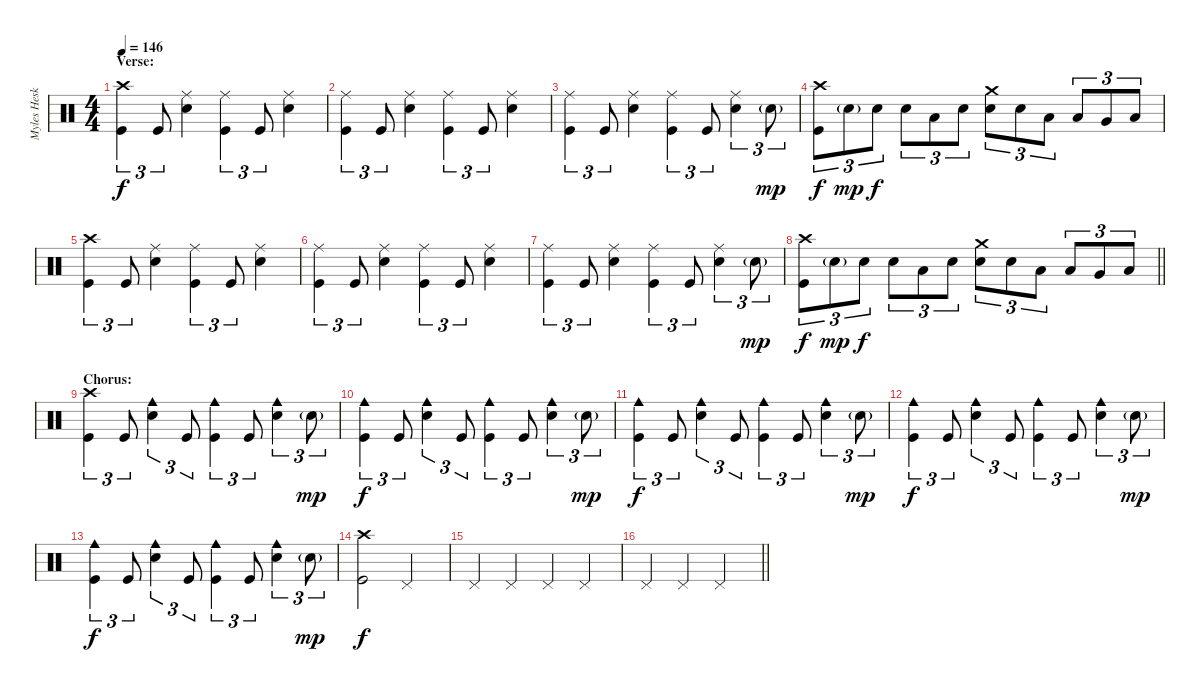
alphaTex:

\track ("Myles Heskett" "Myles Hesk") {instrument percussion}
\staff {score}
\articulation defaults
\ts (4 4)
\section ("" "Verse:")
\tempo 146
\clef neutral
\ks c
("Crash high (hit)" "Kick (hit)").4{tu (3 2) dy f} "Kick (hit)".8{tu (3 2)} ("Ride (middle)" "Electric Snare (hit)").4 ("Ride (middle)" "Kick (hit)").4{tu (3 2)} "Kick (hit)".8{tu (3 2)} ("Ride (middle)" "Electric Snare (hit)").4 |
("Ride (middle)" "Kick (hit)").4{tu (3 2)} "Kick (hit)".8{tu (3 2)} ("Ride (middle)" "Electric Snare (hit)").4 ("Ride (middle)" "Kick (hit)").4{tu (3 2)} "Kick (hit)".8{tu (3 2)} ("Ride (middle)" "Electric Snare (hit)").4 |
("Ride (middle)" "Kick (hit)").4{tu (3 2)} "Kick (hit)".8{tu (3 2)} ("Ride (middle)" "Electric Snare (hit)").4 ("Ride (middle)" "Kick (hit)").4{tu (3 2)} "Kick (hit)".8{tu (3 2)} ("Ride (middle)" "Electric Snare (hit)").4{tu (3 2)} "Electric Snare (hit)"{g}.8{tu (3 2) dy mp} |
("Crash high (hit)" "Kick (hit)").8{tu (3 2) dy f} "Electric Snare (hit)"{g}.8{tu (3 2) dy mp} "Electric Snare (hit)".8{tu (3 2) dy f} "Electric Snare (hit)".8{tu (3 2)} "Low Tom (hit)".8{tu (3 2)} "Electric Snare (hit)".8{tu (3 2)} ("Crash medium (hit)" "Electric Snare (hit)").8{tu (3 2)} "Electric Snare (hit)".8{tu (3 2)} "Low Tom (hit)".8{tu (3 2)} "Low Tom (hit)".8{tu (3 2)} "Very Low Tom (hit)".8{tu (3 2)} "Low Floor Tom (hit)".8{tu (3 2)} |
("Crash high (hit)" "Kick (hit)").4{tu (3 2)} "Kick (hit)".8{tu (3 2)} ("Ride (middle)" "Electric Snare (hit)").4 ("Ride (middle)" "Kick (hit)").4{tu (3 2)} "Kick (hit)".8{tu (3 2)} ("Ride (middle)" "Electric Snare (hit)").4 |
("Ride (middle)" "Kick (hit)").4{tu (3 2)} "Kick (hit)".8{tu (3 2)} ("Ride (middle)" "Electric Snare (hit)").4 ("Ride (middle)" "Kick (hit)").4{tu (3 2)} "Kick (hit)".8{tu (3 2)} ("Ride (middle)" "Electric Snare (hit)").4 |
("Ride (middle)" "Kick (hit)").4{tu (3 2)} "Kick (hit)".8{tu (3 2)} ("Ride (middle)" "Electric Snare (hit)").4 ("Ride (middle)" "Kick (hit)").4{tu (3 2)} "Kick (hit)".8{tu (3 2)} ("Ride (middle)" "Electric Snare (hit)").4{tu (3 2)} "Electric Snare (hit)"{g}.8{tu (3 2) dy mp} |
\barLineRight lightlight
("Crash high (hit)" "Kick (hit)").8{tu (3 2) dy f} "Electric Snare (hit)"{g}.8{tu (3 2) dy mp} "Electric Snare (hit)".8{tu (3 2) dy f} "Electric Snare (hit)".8{tu (3 2)} "Low Tom (hit)".8{tu (3 2)} "Electric Snare (hit)".8{tu (3 2)} ("Crash medium (hit)" "Electric Snare (hit)").8{tu (3 2)} "Electric Snare (hit)".8{tu (3 2)} "Low Tom (hit)".8{tu (3 2)} "Low Tom (hit)".8{tu (3 2)} "Very Low Tom (hit)".8{tu (3 2)} "Low Floor Tom (hit)".8{tu (3 2)} |
\section ("" "Chorus:")
("Crash high (hit)" "Kick (hit)").4{tu (3 2)} "Kick (hit)".8{tu (3 2)} ("Cowbell medium (hit)" "Electric Snare (hit)").4{tu (3 2)} "Kick (hit)".8{tu (3 2)} ("Cowbell medium (hit)" "Kick (hit)").4{tu (3 2)} "Kick (hit)".8{tu (3 2)} ("Cowbell medium (hit)" "Electric Snare (hit)").4{tu (3 2)} "Electric Snare (hit)"{g}.8{tu (3 2) dy mp} |
("Cowbell medium (hit)" "Kick (hit)").4{tu (3 2) dy f} "Kick (hit)".8{tu (3 2)} ("Cowbell medium (hit)" "Electric Snare (hit)").4{tu (3 2)} "Kick (hit)".8{tu (3 2)} ("Cowbell medium (hit)" "Kick (hit)").4{tu (3 2)} "Kick (hit)".8{tu (3 2)} ("Cowbell medium (hit)" "Electric Snare (hit)").4{tu (3 2)} "Electric Snare (hit)"{g}.8{tu (3 2) dy mp} |
("Cowbell medium (hit)" "Kick (hit)").4{tu (3 2) dy f} "Kick (hit)".8{tu (3 2)} ("Cowbell medium (hit)" "Electric Snare (hit)").4{tu (3 2)} "Kick (hit)".8{tu (3 2)} ("Cowbell medium (hit)" "Kick (hit)").4{tu (3 2)} "Kick (hit)".8{tu (3 2)} ("Cowbell medium (hit)" "Electric Snare (hit)").4{tu (3 2)} "Electric Snare (hit)"{g}.8{tu (3 2) dy mp} |
("Cowbell medium (hit)" "Kick (hit)").4{tu (3 2) dy f} "Kick (hit)".8{tu (3 2)} ("Cowbell medium (hit)" "Electric Snare (hit)").4{tu (3 2)} "Kick (hit)".8{tu (3 2)} ("Cowbell medium (hit)" "Kick (hit)").4{tu (3 2)} "Kick (hit)".8{tu (3 2)} ("Cowbell medium (hit)" "Electric Snare (hit)").4{tu (3 2)} "Electric Snare (hit)"{g}.8{tu (3 2) dy mp} |
("Cowbell medium (hit)" "Kick (hit)").4{tu (3 2) dy f} "Kick (hit)".8{tu (3 2)} ("Cowbell medium (hit)" "Electric Snare (hit)").4{tu (3 2)} "Kick (hit)".8{tu (3 2)} ("Cowbell medium (hit)" "Kick (hit)").4{tu (3 2)} "Kick (hit)".8{tu (3 2)} ("Cowbell medium (hit)" "Electric Snare (hit)").4{tu (3 2)} "Electric Snare (hit)"{g}.8{tu (3 2) dy mp} |
("Crash high (hit)" "Kick (hit)").2{dy f} "Pedal Hi-Hat (hit)".2 |
"Pedal Hi-Hat (hit)".4 "Pedal Hi-Hat (hit)".4 "Pedal Hi-Hat (hit)".4 "Pedal Hi-Hat (hit)".4 |
\barLineRight lightlight "Pedal Hi-Hat (hit)".4 "Pedal Hi-Hat (hit)".4 "Pedal Hi-Hat (hit)".2
